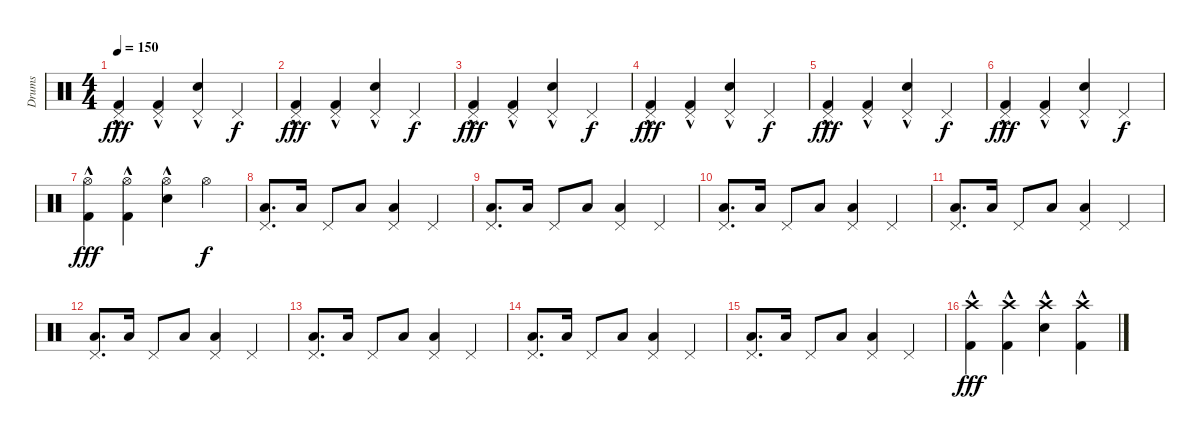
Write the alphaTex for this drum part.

\track ("Drums" "Drums") {instrument percussion}
\staff {score}
\articulation defaults
\ts (4 4)
\tempo 150
\clef neutral
\ks c
("Pedal Hi-Hat (hit)" "Kick (hit) 2"{hac}).4{dy fff} ("Pedal Hi-Hat (hit)" "Kick (hit) 2"{hac}).4 ("Pedal Hi-Hat (hit)" "Electric Snare (hit)"{hac}).4 "Pedal Hi-Hat (hit)".4{dy f} |
("Pedal Hi-Hat (hit)" "Kick (hit) 2"{hac}).4{dy fff} ("Pedal Hi-Hat (hit)" "Kick (hit) 2"{hac}).4 ("Pedal Hi-Hat (hit)" "Electric Snare (hit)"{hac}).4 "Pedal Hi-Hat (hit)".4{dy f} |
("Pedal Hi-Hat (hit)" "Kick (hit) 2"{hac}).4{dy fff} ("Pedal Hi-Hat (hit)" "Kick (hit) 2"{hac}).4 ("Pedal Hi-Hat (hit)" "Electric Snare (hit)"{hac}).4 "Pedal Hi-Hat (hit)".4{dy f} |
("Pedal Hi-Hat (hit)" "Kick (hit) 2"{hac}).4{dy fff} ("Pedal Hi-Hat (hit)" "Kick (hit) 2"{hac}).4 ("Pedal Hi-Hat (hit)" "Electric Snare (hit)"{hac}).4 "Pedal Hi-Hat (hit)".4{dy f} |
("Pedal Hi-Hat (hit)" "Kick (hit) 2"{hac}).4{dy fff} ("Pedal Hi-Hat (hit)" "Kick (hit) 2"{hac}).4 ("Pedal Hi-Hat (hit)" "Electric Snare (hit)"{hac}).4 "Pedal Hi-Hat (hit)".4{dy f} |
("Pedal Hi-Hat (hit)" "Kick (hit) 2"{hac}).4{dy fff} ("Pedal Hi-Hat (hit)" "Kick (hit) 2"{hac}).4 ("Pedal Hi-Hat (hit)" "Electric Snare (hit)"{hac}).4 "Pedal Hi-Hat (hit)".4{dy f} |
("Hi-Hat (open)" "Kick (hit) 2"{hac}).4{dy fff} ("Hi-Hat (open)" "Kick (hit) 2"{hac}).4 ("Hi-Hat (open)" "Electric Snare (hit)"{hac}).4 "Hi-Hat (open)".4{dy f} |
("Pedal Hi-Hat (hit)" "Low Floor Tom (hit)").8{d} "Low Floor Tom (hit)".16 "Pedal Hi-Hat (hit)".8 "Low Floor Tom (hit)".8 ("Pedal Hi-Hat (hit)" "Low Floor Tom (hit)").4 "Pedal Hi-Hat (hit)".4 |
("Pedal Hi-Hat (hit)" "Low Floor Tom (hit)").8{d} "Low Floor Tom (hit)".16 "Pedal Hi-Hat (hit)".8 "Low Floor Tom (hit)".8 ("Pedal Hi-Hat (hit)" "Low Floor Tom (hit)").4 "Pedal Hi-Hat (hit)".4 |
("Pedal Hi-Hat (hit)" "Low Floor Tom (hit)").8{d} "Low Floor Tom (hit)".16 "Pedal Hi-Hat (hit)".8 "Low Floor Tom (hit)".8 ("Pedal Hi-Hat (hit)" "Low Floor Tom (hit)").4 "Pedal Hi-Hat (hit)".4 |
("Pedal Hi-Hat (hit)" "Low Floor Tom (hit)").8{d} "Low Floor Tom (hit)".16 "Pedal Hi-Hat (hit)".8 "Low Floor Tom (hit)".8 ("Pedal Hi-Hat (hit)" "Low Floor Tom (hit)").4 "Pedal Hi-Hat (hit)".4 |
("Pedal Hi-Hat (hit)" "Low Floor Tom (hit)").8{d} "Low Floor Tom (hit)".16 "Pedal Hi-Hat (hit)".8 "Low Floor Tom (hit)".8 ("Pedal Hi-Hat (hit)" "Low Floor Tom (hit)").4 "Pedal Hi-Hat (hit)".4 |
("Pedal Hi-Hat (hit)" "Low Floor Tom (hit)").8{d} "Low Floor Tom (hit)".16 "Pedal Hi-Hat (hit)".8 "Low Floor Tom (hit)".8 ("Pedal Hi-Hat (hit)" "Low Floor Tom (hit)").4 "Pedal Hi-Hat (hit)".4 |
("Pedal Hi-Hat (hit)" "Low Floor Tom (hit)").8{d} "Low Floor Tom (hit)".16 "Pedal Hi-Hat (hit)".8 "Low Floor Tom (hit)".8 ("Pedal Hi-Hat (hit)" "Low Floor Tom (hit)").4 "Pedal Hi-Hat (hit)".4 |
("Pedal Hi-Hat (hit)" "Low Floor Tom (hit)").8{d} "Low Floor Tom (hit)".16 "Pedal Hi-Hat (hit)".8 "Low Floor Tom (hit)".8 ("Pedal Hi-Hat (hit)" "Low Floor Tom (hit)").4 "Pedal Hi-Hat (hit)".4 |
("Crash high (hit)" "Kick (hit) 2"{hac}).4{dy fff} ("Crash high (hit)" "Kick (hit) 2"{hac}).4 ("Crash high (hit)" "Electric Snare (hit)"{hac}).4 ("Crash high (hit)" "Kick (hit) 2"{hac}).4
